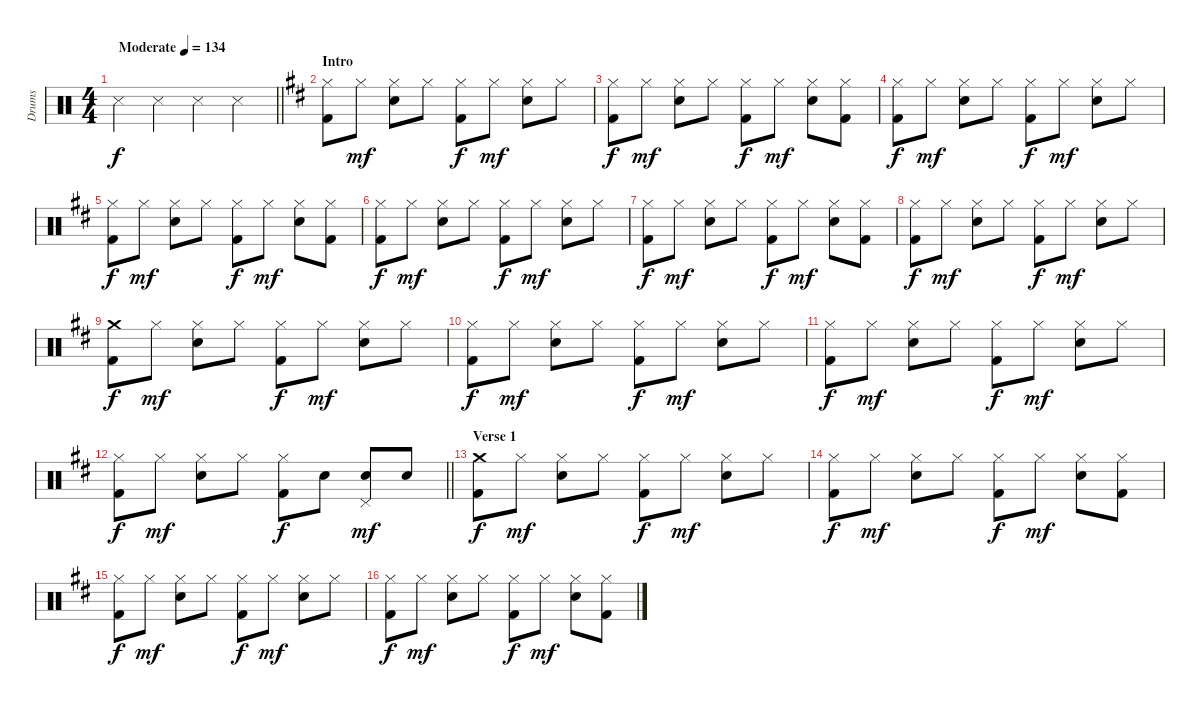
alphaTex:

\track ("Drums" "Drums") {instrument percussion}
\staff {score}
\articulation defaults
\ts (4 4)
\tempo (134 "Moderate")
\clef neutral
\barLineRight lightlight
\ks c "Metronome (hit)".4{dy f} "Metronome (hit)".4 "Metronome (hit)".4 "Metronome (hit)".4
|
\section ("" "Intro")
\ks d
("Hi-Hat (closed)" "Kick (hit) 2").8 "Hi-Hat (closed)".8{dy mf} ("Hi-Hat (closed)" "Snare (hit) 2").8 "Hi-Hat (closed)".8 ("Hi-Hat (closed)" "Kick (hit) 2").8{dy f} "Hi-Hat (closed)".8{dy mf} ("Hi-Hat (closed)" "Snare (hit) 2").8 "Hi-Hat (closed)".8 |
("Hi-Hat (closed)" "Kick (hit) 2").8{dy f} "Hi-Hat (closed)".8{dy mf} ("Hi-Hat (closed)" "Snare (hit) 2").8 "Hi-Hat (closed)".8 ("Hi-Hat (closed)" "Kick (hit) 2").8{dy f} "Hi-Hat (closed)".8{dy mf} ("Hi-Hat (closed)" "Snare (hit) 2").8 ("Hi-Hat (closed)" "Kick (hit) 2").8 |
("Hi-Hat (closed)" "Kick (hit) 2").8{dy f} "Hi-Hat (closed)".8{dy mf} ("Hi-Hat (closed)" "Snare (hit) 2").8 "Hi-Hat (closed)".8 ("Hi-Hat (closed)" "Kick (hit) 2").8{dy f} "Hi-Hat (closed)".8{dy mf} ("Hi-Hat (closed)" "Snare (hit) 2").8 "Hi-Hat (closed)".8 |
("Hi-Hat (closed)" "Kick (hit) 2").8{dy f} "Hi-Hat (closed)".8{dy mf} ("Hi-Hat (closed)" "Snare (hit) 2").8 "Hi-Hat (closed)".8 ("Hi-Hat (closed)" "Kick (hit) 2").8{dy f} "Hi-Hat (closed)".8{dy mf} ("Hi-Hat (closed)" "Snare (hit) 2").8 ("Hi-Hat (closed)" "Kick (hit) 2").8 |
("Hi-Hat (closed)" "Kick (hit) 2").8{dy f} "Hi-Hat (closed)".8{dy mf} ("Hi-Hat (closed)" "Snare (hit) 2").8 "Hi-Hat (closed)".8 ("Hi-Hat (closed)" "Kick (hit) 2").8{dy f} "Hi-Hat (closed)".8{dy mf} ("Hi-Hat (closed)" "Snare (hit) 2").8 "Hi-Hat (closed)".8 |
("Hi-Hat (closed)" "Kick (hit) 2").8{dy f} "Hi-Hat (closed)".8{dy mf} ("Hi-Hat (closed)" "Snare (hit) 2").8 "Hi-Hat (closed)".8 ("Hi-Hat (closed)" "Kick (hit) 2").8{dy f} "Hi-Hat (closed)".8{dy mf} ("Hi-Hat (closed)" "Snare (hit) 2").8 ("Hi-Hat (closed)" "Kick (hit) 2").8 |
("Hi-Hat (closed)" "Kick (hit) 2").8{dy f} "Hi-Hat (closed)".8{dy mf} ("Hi-Hat (closed)" "Snare (hit) 2").8 "Hi-Hat (closed)".8 ("Hi-Hat (closed)" "Kick (hit) 2").8{dy f} "Hi-Hat (closed)".8{dy mf} ("Hi-Hat (closed)" "Snare (hit) 2").8 "Hi-Hat (closed)".8 |
("Crash medium (hit)" "Kick (hit) 2").8{dy f} "Hi-Hat (closed)".8{dy mf} ("Hi-Hat (closed)" "Snare (hit) 2").8 "Hi-Hat (closed)".8 ("Hi-Hat (closed)" "Kick (hit) 2").8{dy f} "Hi-Hat (closed)".8{dy mf} ("Hi-Hat (closed)" "Snare (hit) 2").8 "Hi-Hat (closed)".8 |
("Hi-Hat (closed)" "Kick (hit) 2").8{dy f} "Hi-Hat (closed)".8{dy mf} ("Hi-Hat (closed)" "Snare (hit) 2").8 "Hi-Hat (closed)".8 ("Hi-Hat (closed)" "Kick (hit) 2").8{dy f} "Hi-Hat (closed)".8{dy mf} ("Hi-Hat (closed)" "Snare (hit) 2").8 "Hi-Hat (closed)".8 |
("Hi-Hat (closed)" "Kick (hit) 2").8{dy f} "Hi-Hat (closed)".8{dy mf} ("Hi-Hat (closed)" "Snare (hit) 2").8 "Hi-Hat (closed)".8 ("Hi-Hat (closed)" "Kick (hit) 2").8{dy f} "Hi-Hat (closed)".8{dy mf} ("Hi-Hat (closed)" "Snare (hit) 2").8 "Hi-Hat (closed)".8 |
\barLineRight lightlight
("Hi-Hat (closed)" "Kick (hit) 2").8{dy f} "Hi-Hat (closed)".8{dy mf} ("Hi-Hat (closed)" "Snare (hit) 2").8 "Hi-Hat (closed)".8 ("Hi-Hat (closed)" "Kick (hit) 2").8{dy f} "Snare (hit) 2".8 ("Pedal Hi-Hat (hit)" "Snare (hit) 2").8{dy mf} "Snare (hit) 2".8 |
\section ("" "Verse 1")
("Crash medium (hit)" "Kick (hit) 2").8{dy f} "Hi-Hat (closed)".8{dy mf} ("Hi-Hat (closed)" "Snare (hit) 2").8 "Hi-Hat (closed)".8 ("Hi-Hat (closed)" "Kick (hit) 2").8{dy f} "Hi-Hat (closed)".8{dy mf} ("Hi-Hat (closed)" "Snare (hit) 2").8 "Hi-Hat (closed)".8 |
("Hi-Hat (closed)" "Kick (hit) 2").8{dy f} "Hi-Hat (closed)".8{dy mf} ("Hi-Hat (closed)" "Snare (hit) 2").8 "Hi-Hat (closed)".8 ("Hi-Hat (closed)" "Kick (hit) 2").8{dy f} "Hi-Hat (closed)".8{dy mf} ("Hi-Hat (closed)" "Snare (hit) 2").8 ("Hi-Hat (closed)" "Kick (hit) 2").8 |
("Hi-Hat (closed)" "Kick (hit) 2").8{dy f} "Hi-Hat (closed)".8{dy mf} ("Hi-Hat (closed)" "Snare (hit) 2").8 "Hi-Hat (closed)".8 ("Hi-Hat (closed)" "Kick (hit) 2").8{dy f} "Hi-Hat (closed)".8{dy mf} ("Hi-Hat (closed)" "Snare (hit) 2").8 "Hi-Hat (closed)".8 |
("Hi-Hat (closed)" "Kick (hit) 2").8{dy f} "Hi-Hat (closed)".8{dy mf} ("Hi-Hat (closed)" "Snare (hit) 2").8 "Hi-Hat (closed)".8 ("Hi-Hat (closed)" "Kick (hit) 2").8{dy f} "Hi-Hat (closed)".8{dy mf} ("Hi-Hat (closed)" "Snare (hit) 2").8 ("Hi-Hat (closed)" "Kick (hit) 2").8
